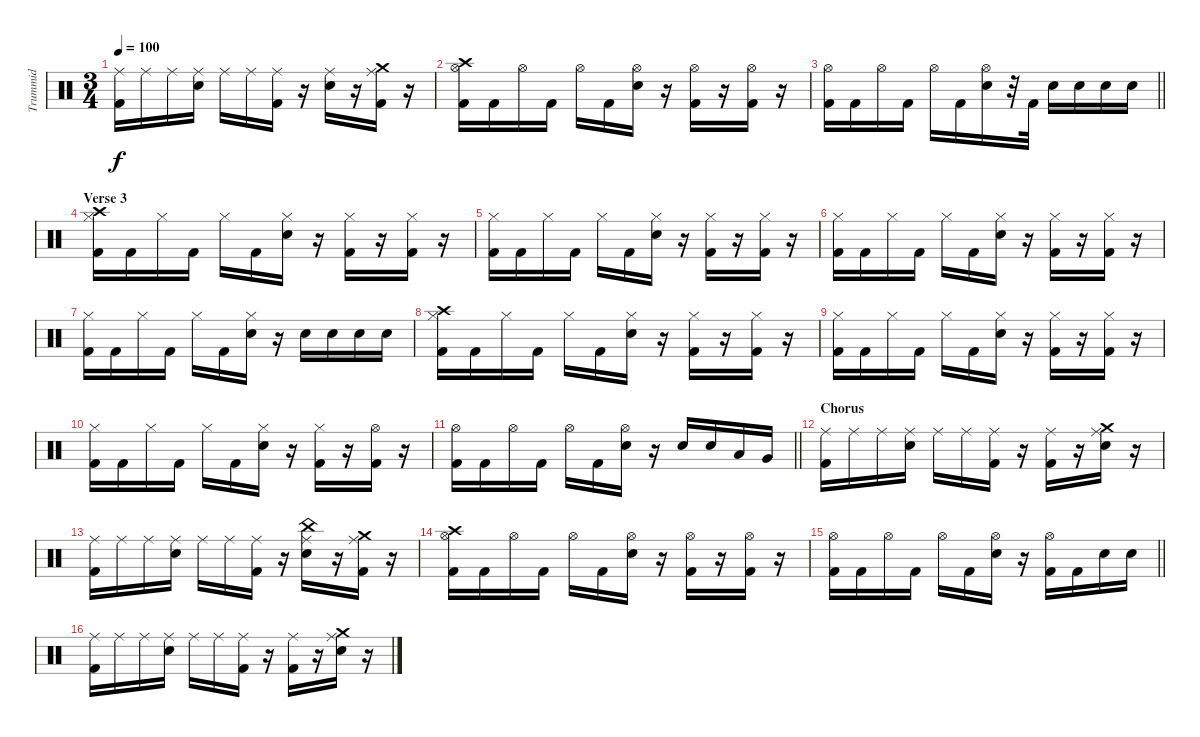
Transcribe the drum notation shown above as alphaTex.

\track ("Trummid" "Trummid") {instrument percussion}
\staff {score}
\articulation defaults
\ts (3 4)
\tempo 100
\clef neutral
\ks c
("Ride (middle)" "Kick (hit) 2").16{dy f} "Ride (middle)".16 "Ride (middle)".16 ("Ride (middle)" "Snare (hit) 2").16 "Ride (middle)".16 "Ride (middle)".16 ("Ride (middle)" "Kick (hit) 2").16 r.16 ("Ride (middle)" "Snare (hit) 2").16 r.16 ("Crash medium (hit)" "Ride (middle)" "Kick (hit) 2").16 r.16 |
("Crash high (hit)" "Hi-Hat (open)" "Kick (hit) 2").16 "Kick (hit) 2".16 "Hi-Hat (open)".16 "Kick (hit) 2".16 "Hi-Hat (open)".16 "Kick (hit) 2".16 ("Hi-Hat (open)" "Snare (hit) 2").16 r.16 ("Hi-Hat (open)" "Kick (hit) 2").16 r.16 ("Hi-Hat (open)" "Kick (hit) 2").16 r.16 |
\barLineRight lightlight
("Hi-Hat (open)" "Kick (hit) 2").16 "Kick (hit) 2".16 "Hi-Hat (open)".16 "Kick (hit) 2".16 "Hi-Hat (open)".16 "Kick (hit) 2".16 ("Hi-Hat (open)" "Snare (hit) 2").16 r.32 "Kick (hit) 2".32 "Snare (hit) 2".16 "Snare (hit) 2".16 "Snare (hit) 2".16 "Snare (hit) 2".16 |
\section ("" "Verse 3")
("Crash high (hit)" "Hi-Hat (closed)" "Kick (hit) 2").16 "Kick (hit) 2".16 "Hi-Hat (closed)".16 "Kick (hit) 2".16 "Hi-Hat (closed)".16 "Kick (hit) 2".16 ("Hi-Hat (closed)" "Snare (hit) 2").16 r.16 ("Hi-Hat (closed)" "Kick (hit) 2").16 r.16 ("Hi-Hat (closed)" "Kick (hit) 2").16 r.16 |
("Hi-Hat (closed)" "Kick (hit) 2").16 "Kick (hit) 2".16 "Hi-Hat (closed)".16 "Kick (hit) 2".16 "Hi-Hat (closed)".16 "Kick (hit) 2".16 ("Hi-Hat (closed)" "Snare (hit) 2").16 r.16 ("Hi-Hat (closed)" "Kick (hit) 2").16 r.16 ("Hi-Hat (closed)" "Kick (hit) 2").16 r.16 |
("Hi-Hat (closed)" "Kick (hit) 2").16 "Kick (hit) 2".16 "Hi-Hat (closed)".16 "Kick (hit) 2".16 "Hi-Hat (closed)".16 "Kick (hit) 2".16 ("Hi-Hat (closed)" "Snare (hit) 2").16 r.16 ("Hi-Hat (closed)" "Kick (hit) 2").16 r.16 ("Hi-Hat (closed)" "Kick (hit) 2").16 r.16 |
("Hi-Hat (closed)" "Kick (hit) 2").16 "Kick (hit) 2".16 "Hi-Hat (closed)".16 "Kick (hit) 2".16 "Hi-Hat (closed)".16 "Kick (hit) 2".16 ("Hi-Hat (closed)" "Snare (hit) 2").16 r.16 "Snare (hit) 2".16 "Snare (hit) 2".16 "Snare (hit) 2".16 "Snare (hit) 2".16 |
("Crash high (hit)" "Hi-Hat (closed)" "Kick (hit) 2").16 "Kick (hit) 2".16 "Hi-Hat (closed)".16 "Kick (hit) 2".16 "Hi-Hat (closed)".16 "Kick (hit) 2".16 ("Hi-Hat (closed)" "Snare (hit) 2").16 r.16 ("Hi-Hat (closed)" "Kick (hit) 2").16 r.16 ("Hi-Hat (closed)" "Kick (hit) 2").16 r.16 |
("Hi-Hat (closed)" "Kick (hit) 2").16 "Kick (hit) 2".16 "Hi-Hat (closed)".16 "Kick (hit) 2".16 "Hi-Hat (closed)".16 "Kick (hit) 2".16 ("Hi-Hat (closed)" "Snare (hit) 2").16 r.16 ("Hi-Hat (closed)" "Kick (hit) 2").16 r.16 ("Hi-Hat (closed)" "Kick (hit) 2").16 r.16 |
("Hi-Hat (closed)" "Kick (hit) 2").16 "Kick (hit) 2".16 "Hi-Hat (closed)".16 "Kick (hit) 2".16 "Hi-Hat (closed)".16 "Kick (hit) 2".16 ("Hi-Hat (closed)" "Snare (hit) 2").16 r.16 ("Hi-Hat (closed)" "Kick (hit) 2").16 r.16 ("Hi-Hat (open)" "Kick (hit) 2").16 r.16 |
\barLineRight lightlight
("Hi-Hat (open)" "Kick (hit) 2").16 "Kick (hit) 2".16 "Hi-Hat (open)".16 "Kick (hit) 2".16 "Hi-Hat (open)".16 "Kick (hit) 2".16 ("Hi-Hat (open)" "Snare (hit) 2").16 r.16 "Snare (hit) 2".16 "Snare (hit) 2".16 "Low Tom (hit)".16 "Very Low Tom (hit)".16 |
\section ("" "Chorus")
("Ride (middle)" "Kick (hit) 2").16 "Ride (middle)".16 "Ride (middle)".16 ("Ride (middle)" "Snare (hit) 2").16 "Ride (middle)".16 "Ride (middle)".16 ("Ride (middle)" "Kick (hit) 2").16 r.16 ("Ride (middle)" "Kick (hit) 2").16 r.16 ("Crash medium (hit)" "Ride (middle)" "Snare (hit) 2").16 r.16 |
("Ride (middle)" "Kick (hit) 2").16 "Ride (middle)".16 "Ride (middle)".16 ("Ride (middle)" "Snare (hit) 2").16 "Ride (middle)".16 "Ride (middle)".16 ("Ride (middle)" "Kick (hit) 2").16 r.16 ("China (hit)" "Ride (middle)" "Snare (hit) 2").16 r.16 ("Crash medium (hit)" "Ride (middle)" "Kick (hit) 2").16 r.16 |
("Crash high (hit)" "Hi-Hat (open)" "Kick (hit) 2").16 "Kick (hit) 2".16 "Hi-Hat (open)".16 "Kick (hit) 2".16 "Hi-Hat (open)".16 "Kick (hit) 2".16 ("Hi-Hat (open)" "Snare (hit) 2").16 r.16 ("Hi-Hat (open)" "Kick (hit) 2").16 r.16 ("Hi-Hat (open)" "Kick (hit) 2").16 r.16 |
\barLineRight lightlight
("Hi-Hat (open)" "Kick (hit) 2").16 "Kick (hit) 2".16 "Hi-Hat (open)".16 "Kick (hit) 2".16 "Hi-Hat (open)".16 "Kick (hit) 2".16 ("Hi-Hat (open)" "Snare (hit) 2").16 r.16 ("Hi-Hat (open)" "Kick (hit) 2").16 "Kick (hit) 2".16 "Snare (hit) 2".16 "Snare (hit) 2".16 |
("Ride (middle)" "Kick (hit) 2").16 "Ride (middle)".16 "Ride (middle)".16 ("Ride (middle)" "Snare (hit) 2").16 "Ride (middle)".16 "Ride (middle)".16 ("Ride (middle)" "Kick (hit) 2").16 r.16 ("Ride (middle)" "Kick (hit) 2").16 r.16 ("Crash medium (hit)" "Ride (middle)" "Snare (hit) 2").16 r.16
